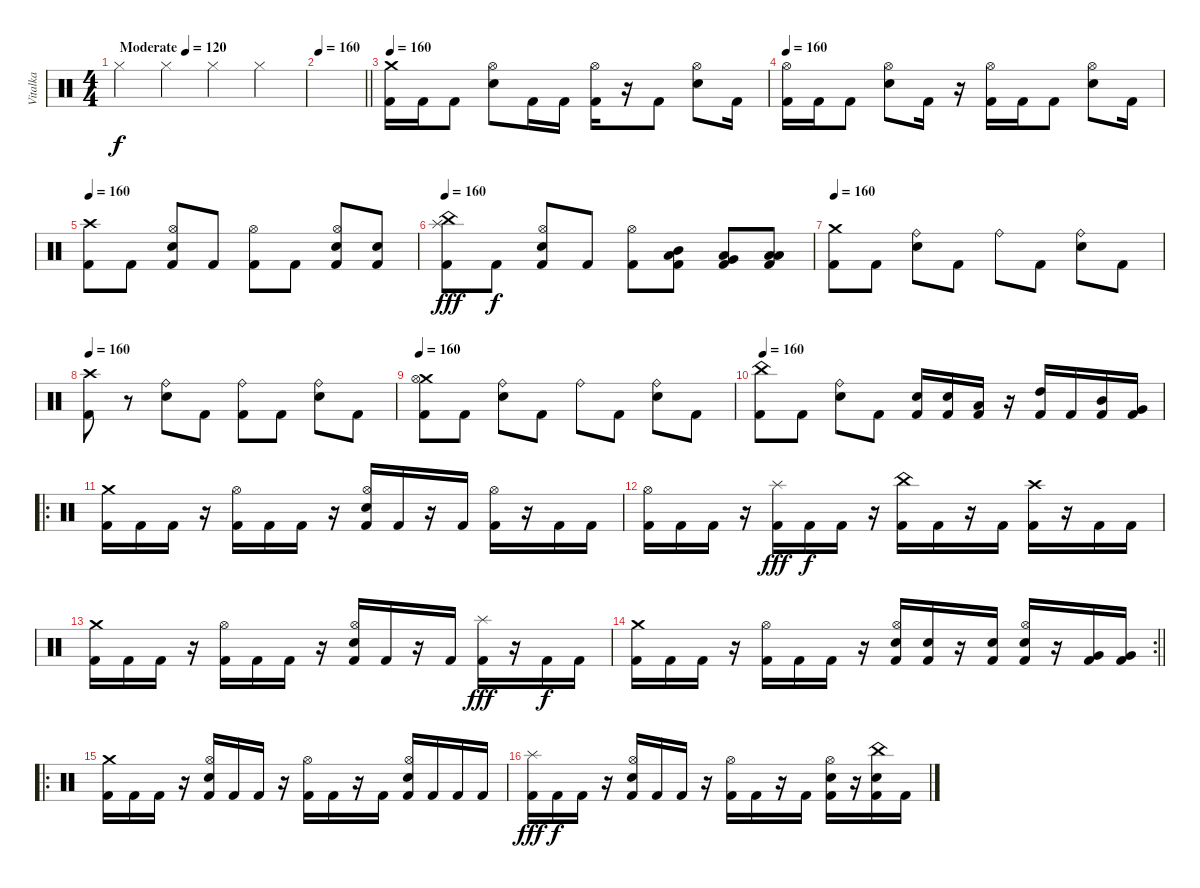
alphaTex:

\track ("Vitalka" "Vitalka") {instrument percussion}
\staff {score}
\articulation defaults
\ts (4 4)
\tempo (120 "Moderate")
\clef neutral
\ks c "Hi-Hat (closed)".4{dy f} "Hi-Hat (closed)".4 "Hi-Hat (closed)".4 "Hi-Hat (closed)".4
|
\tempo 160
\barLineRight lightlight
|
\tempo 160
("Crash medium (hit)" "Kick (hit) 2").16 "Kick (hit) 2".16 "Kick (hit) 2".8 ("Hi-Hat (open)" "Snare (hit) 2").8 "Kick (hit) 2".16 "Kick (hit) 2".16 ("Hi-Hat (open)" "Kick (hit) 2").16 r.16 "Kick (hit) 2".8 ("Hi-Hat (open)" "Snare (hit) 2").8 "Kick (hit) 2".16 |
\tempo 160
("Hi-Hat (open)" "Kick (hit) 2").16 "Kick (hit) 2".16 "Kick (hit) 2".8 ("Hi-Hat (open)" "Snare (hit) 2").8 "Kick (hit) 2".16 r.16 ("Hi-Hat (open)" "Kick (hit) 2").16 "Kick (hit) 2".16 "Kick (hit) 2".8 ("Hi-Hat (open)" "Snare (hit) 2").8 "Kick (hit) 2".16 |
\tempo 160
("Crash high (hit)" "Kick (hit) 2").8 "Kick (hit) 2".8 ("Hi-Hat (open)" "Snare (hit) 2" "Kick (hit) 2").8 "Kick (hit) 2".8 ("Hi-Hat (open)" "Kick (hit) 2").8 "Kick (hit) 2".8 ("Hi-Hat (open)" "Snare (hit) 2" "Kick (hit) 2").8 ("Snare (hit) 2" "Kick (hit) 2").8 |
\tempo 160
("Splash (hit)" "China (hit)" "Kick (hit) 2").8{dy fff} "Kick (hit) 2".8{dy f} ("Hi-Hat (open)" "Snare (hit) 2" "Kick (hit) 2").8 "Kick (hit) 2".8 ("Hi-Hat (open)" "Kick (hit) 2").8 ("Mid Tom (hit)" "Low Tom (hit)" "Kick (hit) 2").8 ("Low Tom (hit)" "Very Low Tom (hit)" "Kick (hit) 2").8 ("Low Tom (hit)" "Low Floor Tom (hit)" "Kick (hit) 2").8 |
\tempo 160
("Crash medium (hit)" "Kick (hit) 2").8 "Kick (hit) 2".8 ("Ride (bell)" "Snare (hit) 2").8 "Kick (hit) 2".8 "Ride (bell)".8 "Kick (hit) 2".8 ("Ride (bell)" "Snare (hit) 2").8 "Kick (hit) 2".8 |
\tempo 160
("Crash high (hit)" "Kick (hit) 2").8 r.8 ("Ride (bell)" "Snare (hit) 2").8 "Kick (hit) 2".8 ("Ride (bell)" "Kick (hit) 2").8 "Kick (hit) 2".8 ("Ride (bell)" "Snare (hit) 2").8 "Kick (hit) 2".8 |
\tempo 160
("Crash medium (hit)" "Hi-Hat (open)" "Kick (hit) 2").8 "Kick (hit) 2".8 ("Ride (bell)" "Snare (hit) 2").8 "Kick (hit) 2".8 "Ride (bell)".8 "Kick (hit) 2".8 ("Ride (bell)" "Snare (hit) 2").8 "Kick (hit) 2".8 |
\tempo 160
("China (hit)" "Kick (hit) 2").8 "Kick (hit) 2".8 ("Ride (bell)" "Snare (hit) 2").8 "Kick (hit) 2".8 ("Snare (hit) 2" "Kick (hit) 2").16 ("Snare (hit) 2" "Kick (hit) 2").16 ("Low Tom (hit)" "Kick (hit) 2").16 r.16 ("High Tom (hit)" "Kick (hit) 2").16 "Kick (hit) 2".16 ("Mid Tom (hit)" "Kick (hit) 2").16 ("Very Low Tom (hit)" "Kick (hit) 2").16 |
\ro
("Crash medium (hit)" "Kick (hit) 2").16 "Kick (hit) 2".16 "Kick (hit) 2".16 r.16 ("Hi-Hat (open)" "Kick (hit) 2").16 "Kick (hit) 2".16 "Kick (hit) 2".16 r.16 ("Hi-Hat (open)" "Snare (hit) 2" "Kick (hit) 2").16 "Kick (hit) 2".16 r.16 "Kick (hit) 2".16 ("Hi-Hat (open)" "Kick (hit) 2").16 r.16 "Kick (hit) 2".16 "Kick (hit) 2".16 |
("Hi-Hat (open)" "Kick (hit) 2").16 "Kick (hit) 2".16 "Kick (hit) 2".16 r.16 ("Splash (hit)" "Kick (hit) 2").16{dy fff} "Kick (hit) 2".16{dy f} "Kick (hit) 2".16 r.16 ("China (hit)" "Kick (hit) 2").16 "Kick (hit) 2".16 r.16 "Kick (hit) 2".16 ("Crash high (hit)" "Kick (hit) 2").16 r.16 "Kick (hit) 2".16 "Kick (hit) 2".16 |
("Crash medium (hit)" "Kick (hit) 2").16 "Kick (hit) 2".16 "Kick (hit) 2".16 r.16 ("Hi-Hat (open)" "Kick (hit) 2").16 "Kick (hit) 2".16 "Kick (hit) 2".16 r.16 ("Hi-Hat (open)" "Snare (hit) 2" "Kick (hit) 2").16 "Kick (hit) 2".16 r.16 "Kick (hit) 2".16 ("Splash (hit)" "Kick (hit) 2").16{dy fff} r.16 "Kick (hit) 2".16{dy f} "Kick (hit) 2".16 |
\rc 2
\barLineRight lightlight
("Crash medium (hit)" "Kick (hit) 2").16 "Kick (hit) 2".16 "Kick (hit) 2".16 r.16 ("Hi-Hat (open)" "Kick (hit) 2").16 "Kick (hit) 2".16 "Kick (hit) 2".16 r.16 ("Hi-Hat (open)" "Snare (hit) 2" "Kick (hit) 2").16 ("Snare (hit) 2" "Kick (hit) 2").16 r.16 ("Snare (hit) 2" "Kick (hit) 2").16 ("Hi-Hat (open)" "Snare (hit) 2" "Kick (hit) 2").16 r.16 ("Very Low Tom (hit)" "Kick (hit) 2").16 ("Very Low Tom (hit)" "Kick (hit) 2").16 |
\ro
("Crash medium (hit)" "Kick (hit) 2").16 "Kick (hit) 2".16 "Kick (hit) 2".16 r.16 ("Hi-Hat (open)" "Snare (hit) 2" "Kick (hit) 2").16 "Kick (hit) 2".16 "Kick (hit) 2".16 r.16 ("Hi-Hat (open)" "Kick (hit) 2").16 "Kick (hit) 2".16 r.16 "Kick (hit) 2".16 ("Hi-Hat (open)" "Snare (hit) 2" "Kick (hit) 2").16 "Kick (hit) 2".16 "Kick (hit) 2".16 "Kick (hit) 2".16 |
("Splash (hit)" "Kick (hit) 2").16{dy fff} "Kick (hit) 2".16{dy f} "Kick (hit) 2".16 r.16 ("Hi-Hat (open)" "Snare (hit) 2" "Kick (hit) 2").16 "Kick (hit) 2".16 "Kick (hit) 2".16 r.16 ("Hi-Hat (open)" "Kick (hit) 2").16 "Kick (hit) 2".16 r.16 "Kick (hit) 2".16 ("Hi-Hat (open)" "Snare (hit) 2" "Kick (hit) 2").16 r.16 ("China (hit)" "Snare (hit) 2" "Kick (hit) 2").16 "Kick (hit) 2".16
